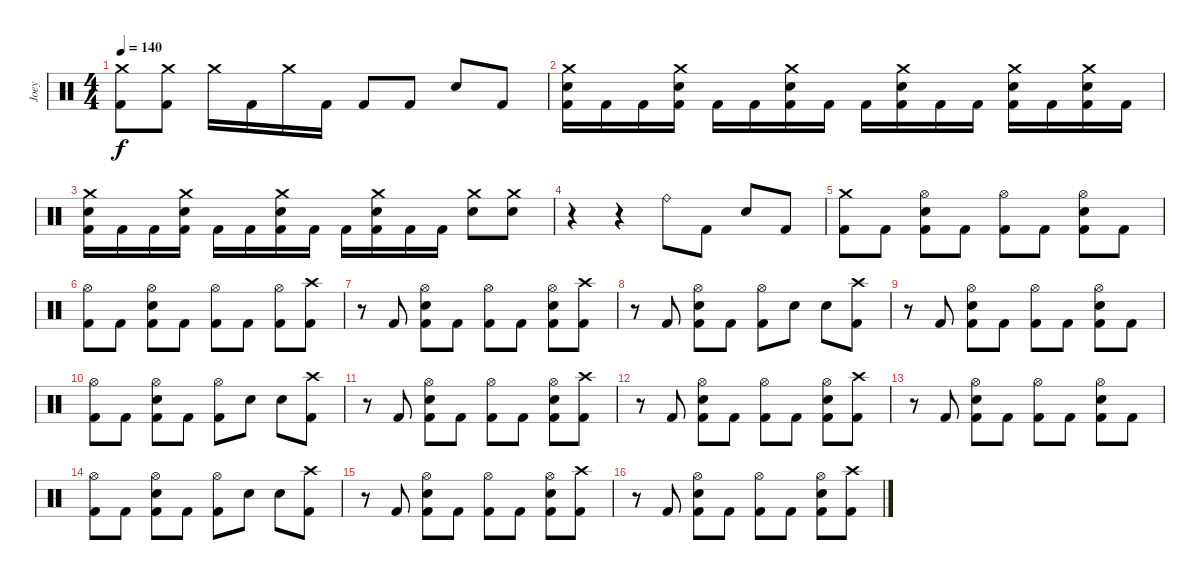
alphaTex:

\track ("Joey" "Joey") {instrument percussion}
\staff {score}
\articulation defaults
\ts (4 4)
\tempo 140
\clef neutral
\ks c
("Crash medium (hit)" "Kick (hit) 2").8{dy f} ("Crash medium (hit)" "Kick (hit) 2").8 "Crash medium (hit)".16 "Kick (hit) 2".16 "Crash medium (hit)".16 "Kick (hit) 2".16 "Kick (hit) 2".8 "Kick (hit) 2".8 "Electric Snare (hit)".8 "Kick (hit) 2".8 |
("Crash medium (hit)" "Electric Snare (hit)" "Kick (hit) 2").16 "Kick (hit) 2".16 "Kick (hit) 2".16 ("Crash medium (hit)" "Electric Snare (hit)" "Kick (hit) 2").16 "Kick (hit) 2".16 "Kick (hit) 2".16 ("Crash medium (hit)" "Electric Snare (hit)" "Kick (hit) 2").16 "Kick (hit) 2".16 "Kick (hit) 2".16 ("Crash medium (hit)" "Electric Snare (hit)" "Kick (hit) 2").16 "Kick (hit) 2".16 "Kick (hit) 2".16 ("Crash medium (hit)" "Electric Snare (hit)" "Kick (hit) 2").16 "Kick (hit) 2".16 ("Crash medium (hit)" "Electric Snare (hit)" "Kick (hit) 2").16 "Kick (hit) 2".16 |
("Crash medium (hit)" "Electric Snare (hit)" "Kick (hit) 2").16 "Kick (hit) 2".16 "Kick (hit) 2".16 ("Crash medium (hit)" "Electric Snare (hit)" "Kick (hit) 2").16 "Kick (hit) 2".16 "Kick (hit) 2".16 ("Crash medium (hit)" "Electric Snare (hit)" "Kick (hit) 2").16 "Kick (hit) 2".16 "Kick (hit) 2".16 ("Crash medium (hit)" "Electric Snare (hit)" "Kick (hit) 2").16 "Kick (hit) 2".16 "Kick (hit) 2".16 ("Crash medium (hit)" "Electric Snare (hit)").8 ("Crash medium (hit)" "Electric Snare (hit)").8 |
r.4 r.4 "Ride (bell)".8 "Kick (hit) 2".8 "Electric Snare (hit)".8 "Kick (hit) 2".8 |
("Crash medium (hit)" "Kick (hit) 2").8 "Kick (hit) 2".8 ("Hi-Hat (open)" "Electric Snare (hit)" "Kick (hit) 2").8 "Kick (hit) 2".8 ("Hi-Hat (open)" "Kick (hit) 2").8 "Kick (hit) 2".8 ("Hi-Hat (open)" "Electric Snare (hit)" "Kick (hit) 2").8 "Kick (hit) 2".8 |
("Hi-Hat (open)" "Kick (hit) 2").8 "Kick (hit) 2".8 ("Hi-Hat (open)" "Electric Snare (hit)" "Kick (hit) 2").8 "Kick (hit) 2".8 ("Hi-Hat (open)" "Kick (hit) 2").8 "Kick (hit) 2".8 ("Hi-Hat (open)" "Kick (hit) 2").8 ("Crash high (hit)" "Kick (hit) 2").8 |
r.8 "Kick (hit) 2".8 ("Hi-Hat (open)" "Electric Snare (hit)" "Kick (hit) 2").8 "Kick (hit) 2".8 ("Hi-Hat (open)" "Kick (hit) 2").8 "Kick (hit) 2".8 ("Hi-Hat (open)" "Electric Snare (hit)" "Kick (hit) 2").8 ("Crash high (hit)" "Kick (hit) 2").8 |
r.8 "Kick (hit) 2".8 ("Hi-Hat (open)" "Electric Snare (hit)" "Kick (hit) 2").8 "Kick (hit) 2".8 ("Hi-Hat (open)" "Kick (hit) 2").8 "Electric Snare (hit)".8 "Electric Snare (hit)".8 ("Crash high (hit)" "Kick (hit) 2").8 |
r.8 "Kick (hit) 2".8 ("Hi-Hat (open)" "Electric Snare (hit)" "Kick (hit) 2").8 "Kick (hit) 2".8 ("Hi-Hat (open)" "Kick (hit) 2").8 "Kick (hit) 2".8 ("Hi-Hat (open)" "Electric Snare (hit)" "Kick (hit) 2").8 "Kick (hit) 2".8 |
("Hi-Hat (open)" "Kick (hit) 2").8 "Kick (hit) 2".8 ("Hi-Hat (open)" "Electric Snare (hit)" "Kick (hit) 2").8 "Kick (hit) 2".8 ("Hi-Hat (open)" "Kick (hit) 2").8 "Electric Snare (hit)".8 "Electric Snare (hit)".8 ("Crash high (hit)" "Kick (hit) 2").8 |
r.8 "Kick (hit) 2".8 ("Hi-Hat (open)" "Electric Snare (hit)" "Kick (hit) 2").8 "Kick (hit) 2".8 ("Hi-Hat (open)" "Kick (hit) 2").8 "Kick (hit) 2".8 ("Hi-Hat (open)" "Electric Snare (hit)" "Kick (hit) 2").8 ("Crash high (hit)" "Kick (hit) 2").8 |
r.8 "Kick (hit) 2".8 ("Hi-Hat (open)" "Electric Snare (hit)" "Kick (hit) 2").8 "Kick (hit) 2".8 ("Hi-Hat (open)" "Kick (hit) 2").8 "Kick (hit) 2".8 ("Hi-Hat (open)" "Electric Snare (hit)" "Kick (hit) 2").8 ("Crash high (hit)" "Kick (hit) 2").8 |
r.8 "Kick (hit) 2".8 ("Hi-Hat (open)" "Electric Snare (hit)" "Kick (hit) 2").8 "Kick (hit) 2".8 ("Hi-Hat (open)" "Kick (hit) 2").8 "Kick (hit) 2".8 ("Hi-Hat (open)" "Electric Snare (hit)" "Kick (hit) 2").8 "Kick (hit) 2".8 |
("Hi-Hat (open)" "Kick (hit) 2").8 "Kick (hit) 2".8 ("Hi-Hat (open)" "Electric Snare (hit)" "Kick (hit) 2").8 "Kick (hit) 2".8 ("Hi-Hat (open)" "Kick (hit) 2").8 "Electric Snare (hit)".8 "Electric Snare (hit)".8 ("Crash high (hit)" "Kick (hit) 2").8 |
r.8 "Kick (hit) 2".8 ("Hi-Hat (open)" "Electric Snare (hit)" "Kick (hit) 2").8 "Kick (hit) 2".8 ("Hi-Hat (open)" "Kick (hit) 2").8 "Kick (hit) 2".8 ("Hi-Hat (open)" "Electric Snare (hit)" "Kick (hit) 2").8 ("Crash high (hit)" "Kick (hit) 2").8 |
r.8 "Kick (hit) 2".8 ("Hi-Hat (open)" "Electric Snare (hit)" "Kick (hit) 2").8 "Kick (hit) 2".8 ("Hi-Hat (open)" "Kick (hit) 2").8 "Kick (hit) 2".8 ("Hi-Hat (open)" "Electric Snare (hit)" "Kick (hit) 2").8 ("Crash high (hit)" "Kick (hit) 2").8
